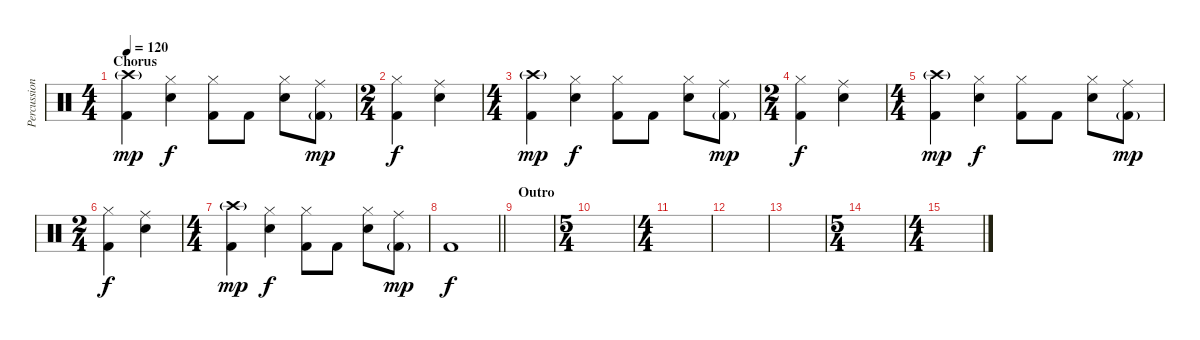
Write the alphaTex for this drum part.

\track ("Percussion" "Percussion") {instrument percussion}
\staff {score}
\articulation defaults
\ts (4 4)
\section ("" "Chorus")
\tempo 120
\clef neutral
\ks c
("Crash high (hit)"{g} "Kick (hit) 2").4{dy mp} ("Hi-Hat (closed)" "Snare (hit) 2").4{dy f} ("Hi-Hat (closed)" "Kick (hit) 2").8 "Kick (hit) 2".8 ("Hi-Hat (closed)" "Snare (hit) 2").8 ("Ride (middle)" "Kick (hit) 2"{g}).8{dy mp} |
\ts (2 4)
("Hi-Hat (closed)" "Kick (hit) 2").4{dy f} ("Ride (middle)" "Snare (hit) 2").4 |
\ts (4 4)
("Crash high (hit)"{g} "Kick (hit) 2").4{dy mp} ("Hi-Hat (closed)" "Snare (hit) 2").4{dy f} ("Hi-Hat (closed)" "Kick (hit) 2").8 "Kick (hit) 2".8 ("Hi-Hat (closed)" "Snare (hit) 2").8 ("Ride (middle)" "Kick (hit) 2"{g}).8{dy mp} |
\ts (2 4)
("Hi-Hat (closed)" "Kick (hit) 2").4{dy f} ("Ride (middle)" "Snare (hit) 2").4 |
\ts (4 4)
("Crash high (hit)"{g} "Kick (hit) 2").4{dy mp} ("Hi-Hat (closed)" "Snare (hit) 2").4{dy f} ("Hi-Hat (closed)" "Kick (hit) 2").8 "Kick (hit) 2".8 ("Hi-Hat (closed)" "Snare (hit) 2").8 ("Ride (middle)" "Kick (hit) 2"{g}).8{dy mp} |
\ts (2 4)
("Hi-Hat (closed)" "Kick (hit) 2").4{dy f} ("Ride (middle)" "Snare (hit) 2").4 |
\ts (4 4)
("Crash high (hit)"{g} "Kick (hit) 2").4{dy mp} ("Hi-Hat (closed)" "Snare (hit) 2").4{dy f} ("Hi-Hat (closed)" "Kick (hit) 2").8 "Kick (hit) 2".8 ("Hi-Hat (closed)" "Snare (hit) 2").8 ("Ride (middle)" "Kick (hit) 2"{g}).8{dy mp} |
\barLineRight lightlight "Kick (hit) 2".1{dy f}
|
\section ("" "Outro")
|
\ts (5 4)
|
\ts (4 4)
|
|
|
\ts (5 4)
|
\ts (4 4)
